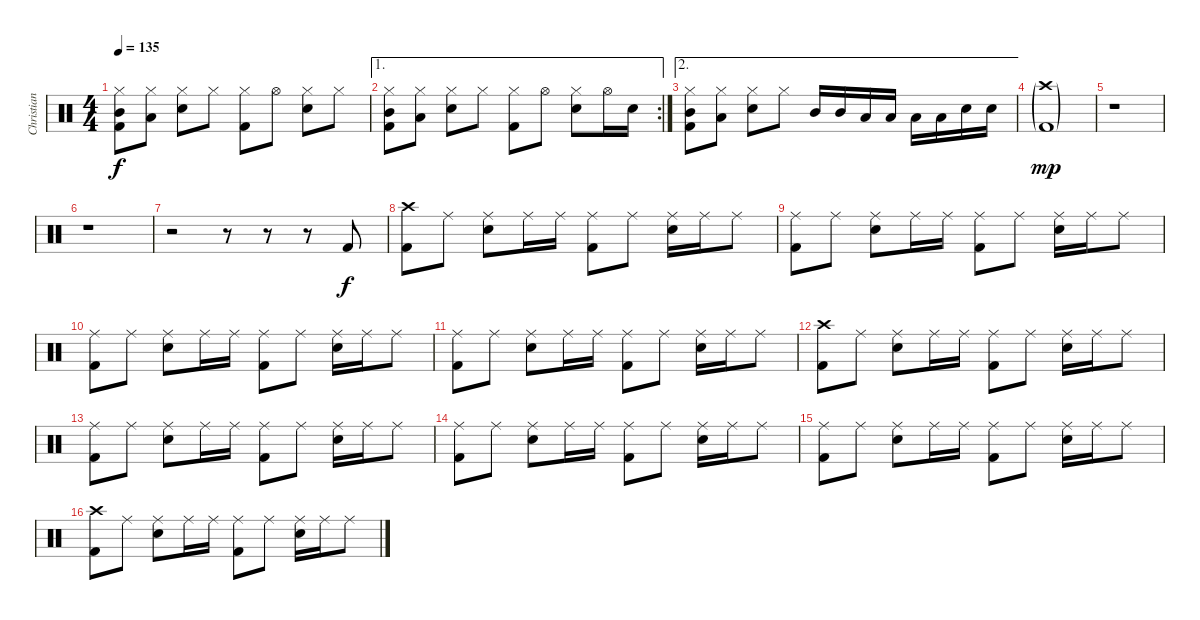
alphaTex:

\track ("Christian" "Christian") {instrument percussion}
\staff {score}
\articulation defaults
\ts (4 4)
\tempo 135
\clef neutral
\ks c
("Hi-Hat (closed)" "Mid Tom (hit)" "Kick (hit) 2").8{dy f} ("Hi-Hat (closed)" "Low Tom (hit)").8 ("Hi-Hat (closed)" "Snare (hit) 2").8 "Hi-Hat (closed)".8 ("Hi-Hat (closed)" "Kick (hit) 2").8 "Hi-Hat (open)".8 ("Hi-Hat (closed)" "Snare (hit) 2").8 "Hi-Hat (closed)".8 |
\ae 1
\rc 2
("Hi-Hat (closed)" "Mid Tom (hit)" "Kick (hit) 2").8 ("Hi-Hat (closed)" "Low Tom (hit)").8 ("Hi-Hat (closed)" "Snare (hit) 2").8 "Hi-Hat (closed)".8 ("Hi-Hat (closed)" "Kick (hit) 2").8 "Hi-Hat (open)".8 ("Hi-Hat (closed)" "Snare (hit) 2").8 "Hi-Hat (open)".16 "Snare (hit) 2".16 |
\ae 2
("Hi-Hat (closed)" "Mid Tom (hit)" "Kick (hit) 2").8 ("Hi-Hat (closed)" "Low Tom (hit)").8 ("Hi-Hat (closed)" "Snare (hit) 2").8 "Hi-Hat (closed)".8 "Mid Tom (hit)".16 "Mid Tom (hit)".16 "Low Tom (hit)".16 "Low Tom (hit)".16 "Low Floor Tom (hit)".16 "Low Floor Tom (hit)".16 "Snare (hit) 2".16 "Snare (hit) 2".16 |
("Crash high (hit)"{g} "Kick (hit) 2"{g}).1{dy mp} |
r.1 |
r.1 |
r.2 r.8 r.8 r.8 "Kick (hit) 2".8{dy f} |
("Crash high (hit)" "Kick (hit) 2").8 "Ride (middle)".8 ("Ride (middle)" "Snare (hit) 2").8 "Ride (middle)".16 "Ride (middle)".16 ("Ride (middle)" "Kick (hit) 2").8 "Ride (middle)".8 ("Ride (middle)" "Snare (hit) 2").16 "Ride (middle)".16 "Ride (middle)".8 |
("Ride (middle)" "Kick (hit) 2").8 "Ride (middle)".8 ("Ride (middle)" "Snare (hit) 2").8 "Ride (middle)".16 "Ride (middle)".16 ("Ride (middle)" "Kick (hit) 2").8 "Ride (middle)".8 ("Ride (middle)" "Snare (hit) 2").16 "Ride (middle)".16 "Ride (middle)".8 |
("Ride (middle)" "Kick (hit) 2").8 "Ride (middle)".8 ("Ride (middle)" "Snare (hit) 2").8 "Ride (middle)".16 "Ride (middle)".16 ("Ride (middle)" "Kick (hit) 2").8 "Ride (middle)".8 ("Ride (middle)" "Snare (hit) 2").16 "Ride (middle)".16 "Ride (middle)".8 |
("Ride (middle)" "Kick (hit) 2").8 "Ride (middle)".8 ("Ride (middle)" "Snare (hit) 2").8 "Ride (middle)".16 "Ride (middle)".16 ("Ride (middle)" "Kick (hit) 2").8 "Ride (middle)".8 ("Ride (middle)" "Snare (hit) 2").16 "Ride (middle)".16 "Ride (middle)".8 |
("Crash high (hit)" "Kick (hit) 2").8 "Ride (middle)".8 ("Ride (middle)" "Snare (hit) 2").8 "Ride (middle)".16 "Ride (middle)".16 ("Ride (middle)" "Kick (hit) 2").8 "Ride (middle)".8 ("Ride (middle)" "Snare (hit) 2").16 "Ride (middle)".16 "Ride (middle)".8 |
("Ride (middle)" "Kick (hit) 2").8 "Ride (middle)".8 ("Ride (middle)" "Snare (hit) 2").8 "Ride (middle)".16 "Ride (middle)".16 ("Ride (middle)" "Kick (hit) 2").8 "Ride (middle)".8 ("Ride (middle)" "Snare (hit) 2").16 "Ride (middle)".16 "Ride (middle)".8 |
("Ride (middle)" "Kick (hit) 2").8 "Ride (middle)".8 ("Ride (middle)" "Snare (hit) 2").8 "Ride (middle)".16 "Ride (middle)".16 ("Ride (middle)" "Kick (hit) 2").8 "Ride (middle)".8 ("Ride (middle)" "Snare (hit) 2").16 "Ride (middle)".16 "Ride (middle)".8 |
("Ride (middle)" "Kick (hit) 2").8 "Ride (middle)".8 ("Ride (middle)" "Snare (hit) 2").8 "Ride (middle)".16 "Ride (middle)".16 ("Ride (middle)" "Kick (hit) 2").8 "Ride (middle)".8 ("Ride (middle)" "Snare (hit) 2").16 "Ride (middle)".16 "Ride (middle)".8 |
("Crash high (hit)" "Kick (hit) 2").8 "Ride (middle)".8 ("Ride (middle)" "Snare (hit) 2").8 "Ride (middle)".16 "Ride (middle)".16 ("Ride (middle)" "Kick (hit) 2").8 "Ride (middle)".8 ("Ride (middle)" "Snare (hit) 2").16 "Ride (middle)".16 "Ride (middle)".8
